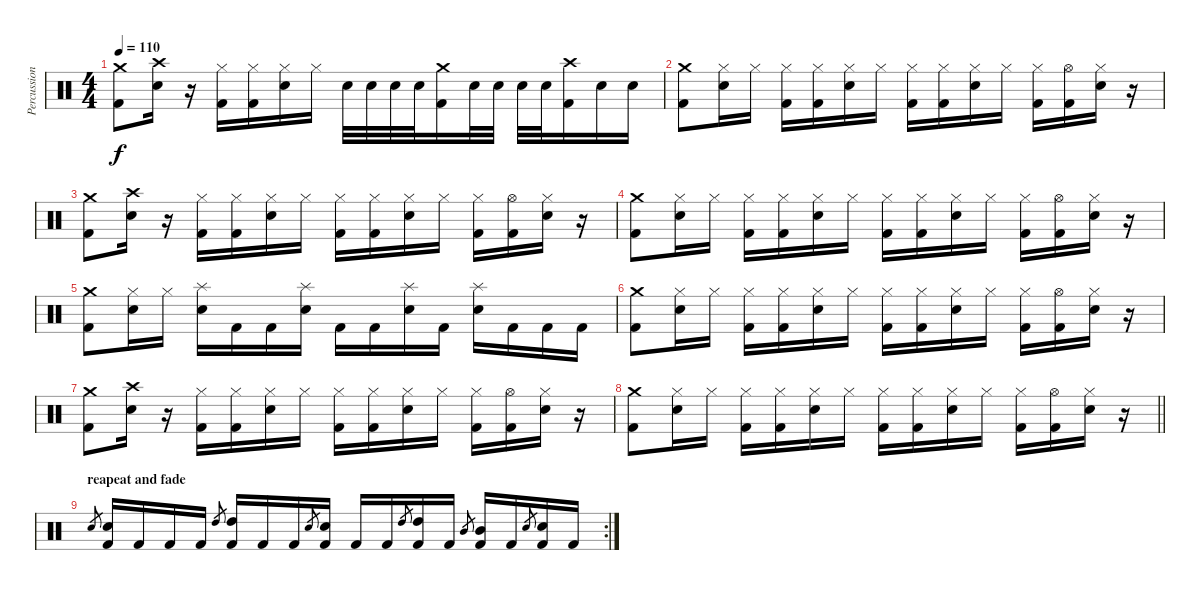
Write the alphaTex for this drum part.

\track ("Percussions" "Percussion") {instrument percussion}
\staff {score}
\articulation defaults
\ts (4 4)
\tempo 110
\clef neutral
\ks c
("Crash medium (hit)" "Kick (hit) 2").8{dy f} ("Crash high (hit)" "Electric Snare (hit)").16 r.16 ("Hi-Hat (closed)" "Kick (hit) 2").16 ("Hi-Hat (closed)" "Kick (hit) 2").16 ("Hi-Hat (closed)" "Electric Snare (hit)").16 "Hi-Hat (closed)".16 "Electric Snare (hit)".32 "Electric Snare (hit)".32 "Electric Snare (hit)".32 "Electric Snare (hit)".32 ("Crash medium (hit)" "Kick (hit) 2").16 "Electric Snare (hit)".32 "Electric Snare (hit)".32 "Electric Snare (hit)".32 "Electric Snare (hit)".32 ("Crash high (hit)" "Kick (hit) 2").16 "Electric Snare (hit)".16 "Electric Snare (hit)".16 |
("Crash medium (hit)" "Kick (hit) 2").8 ("Hi-Hat (closed)" "Electric Snare (hit)").16 "Hi-Hat (closed)".16 ("Hi-Hat (closed)" "Kick (hit) 2").16 ("Hi-Hat (closed)" "Kick (hit) 2").16 ("Hi-Hat (closed)" "Electric Snare (hit)").16 "Hi-Hat (closed)".16 ("Hi-Hat (closed)" "Kick (hit) 2").16 ("Hi-Hat (closed)" "Kick (hit) 2").16 ("Hi-Hat (closed)" "Electric Snare (hit)").16 "Hi-Hat (closed)".16 ("Hi-Hat (closed)" "Kick (hit) 2").16 ("Hi-Hat (open)" "Kick (hit) 2").16 ("Hi-Hat (closed)" "Electric Snare (hit)").16 r.16 |
("Crash medium (hit)" "Kick (hit) 2").8 ("Crash high (hit)" "Electric Snare (hit)").16 r.16 ("Hi-Hat (closed)" "Kick (hit) 2").16 ("Hi-Hat (closed)" "Kick (hit) 2").16 ("Hi-Hat (closed)" "Electric Snare (hit)").16 "Hi-Hat (closed)".16 ("Hi-Hat (closed)" "Kick (hit) 2").16 ("Hi-Hat (closed)" "Kick (hit) 2").16 ("Hi-Hat (closed)" "Electric Snare (hit)").16 "Hi-Hat (closed)".16 ("Hi-Hat (closed)" "Kick (hit) 2").16 ("Hi-Hat (open)" "Kick (hit) 2").16 ("Hi-Hat (closed)" "Electric Snare (hit)").16 r.16 |
("Crash medium (hit)" "Kick (hit) 2").8 ("Hi-Hat (closed)" "Electric Snare (hit)").16 "Hi-Hat (closed)".16 ("Hi-Hat (closed)" "Kick (hit) 2").16 ("Hi-Hat (closed)" "Kick (hit) 2").16 ("Hi-Hat (closed)" "Electric Snare (hit)").16 "Hi-Hat (closed)".16 ("Hi-Hat (closed)" "Kick (hit) 2").16 ("Hi-Hat (closed)" "Kick (hit) 2").16 ("Hi-Hat (closed)" "Electric Snare (hit)").16 "Hi-Hat (closed)".16 ("Hi-Hat (closed)" "Kick (hit) 2").16 ("Hi-Hat (open)" "Kick (hit) 2").16 ("Hi-Hat (closed)" "Electric Snare (hit)").16 r.16 |
("Crash medium (hit)" "Kick (hit) 2").8 ("Hi-Hat (closed)" "Electric Snare (hit)").16 "Hi-Hat (closed)".16 ("Splash (hit)" "Electric Snare (hit)").16 "Kick (hit) 2".16 "Kick (hit) 2".16 ("Splash (hit)" "Electric Snare (hit)").16 "Kick (hit) 2".16 "Kick (hit) 2".16 ("Splash (hit)" "Electric Snare (hit)").16 "Kick (hit) 2".16 ("Splash (hit)" "Electric Snare (hit)").16 "Kick (hit) 2".16 "Kick (hit) 2".16 "Kick (hit) 2".16 |
("Crash medium (hit)" "Kick (hit) 2").8 ("Hi-Hat (closed)" "Electric Snare (hit)").16 "Hi-Hat (closed)".16 ("Hi-Hat (closed)" "Kick (hit) 2").16 ("Hi-Hat (closed)" "Kick (hit) 2").16 ("Hi-Hat (closed)" "Electric Snare (hit)").16 "Hi-Hat (closed)".16 ("Hi-Hat (closed)" "Kick (hit) 2").16 ("Hi-Hat (closed)" "Kick (hit) 2").16 ("Hi-Hat (closed)" "Electric Snare (hit)").16 "Hi-Hat (closed)".16 ("Hi-Hat (closed)" "Kick (hit) 2").16 ("Hi-Hat (open)" "Kick (hit) 2").16 ("Hi-Hat (closed)" "Electric Snare (hit)").16 r.16 |
("Crash medium (hit)" "Kick (hit) 2").8 ("Crash high (hit)" "Electric Snare (hit)").16 r.16 ("Hi-Hat (closed)" "Kick (hit) 2").16 ("Hi-Hat (closed)" "Kick (hit) 2").16 ("Hi-Hat (closed)" "Electric Snare (hit)").16 "Hi-Hat (closed)".16 ("Hi-Hat (closed)" "Kick (hit) 2").16 ("Hi-Hat (closed)" "Kick (hit) 2").16 ("Hi-Hat (closed)" "Electric Snare (hit)").16 "Hi-Hat (closed)".16 ("Hi-Hat (closed)" "Kick (hit) 2").16 ("Hi-Hat (open)" "Kick (hit) 2").16 ("Hi-Hat (closed)" "Electric Snare (hit)").16 r.16 |
\barLineRight lightlight
("Crash medium (hit)" "Kick (hit) 2").8 ("Hi-Hat (closed)" "Electric Snare (hit)").16 "Hi-Hat (closed)".16 ("Hi-Hat (closed)" "Kick (hit) 2").16 ("Hi-Hat (closed)" "Kick (hit) 2").16 ("Hi-Hat (closed)" "Electric Snare (hit)").16 "Hi-Hat (closed)".16 ("Hi-Hat (closed)" "Kick (hit) 2").16 ("Hi-Hat (closed)" "Kick (hit) 2").16 ("Hi-Hat (closed)" "Electric Snare (hit)").16 "Hi-Hat (closed)".16 ("Hi-Hat (closed)" "Kick (hit) 2").16 ("Hi-Hat (open)" "Kick (hit) 2").16 ("Hi-Hat (closed)" "Electric Snare (hit)").16 r.16 |
\rc 2
\section ("" "reapeat and fade")
"Electric Snare (hit)".8{gr} ("Electric Snare (hit)" "Kick (hit) 2").16 "Kick (hit) 2".16 "Kick (hit) 2".16 "Kick (hit) 2".16 "High Tom (hit)".8{gr} ("High Tom (hit)" "Kick (hit) 2").16 "Kick (hit) 2".16 "Kick (hit) 2".16 "Electric Snare (hit)".8{gr} ("Electric Snare (hit)" "Kick (hit) 2").16 "Kick (hit) 2".16 "Kick (hit) 2".16 "High Tom (hit)".8{gr} ("High Tom (hit)" "Kick (hit) 2").16 "Kick (hit) 2".16 "Mid Tom (hit)".8{gr} ("Mid Tom (hit)" "Kick (hit) 2").16 "Kick (hit) 2".16 "Electric Snare (hit)".8{gr} ("Electric Snare (hit)" "Kick (hit) 2").16 "Kick (hit) 2".16
